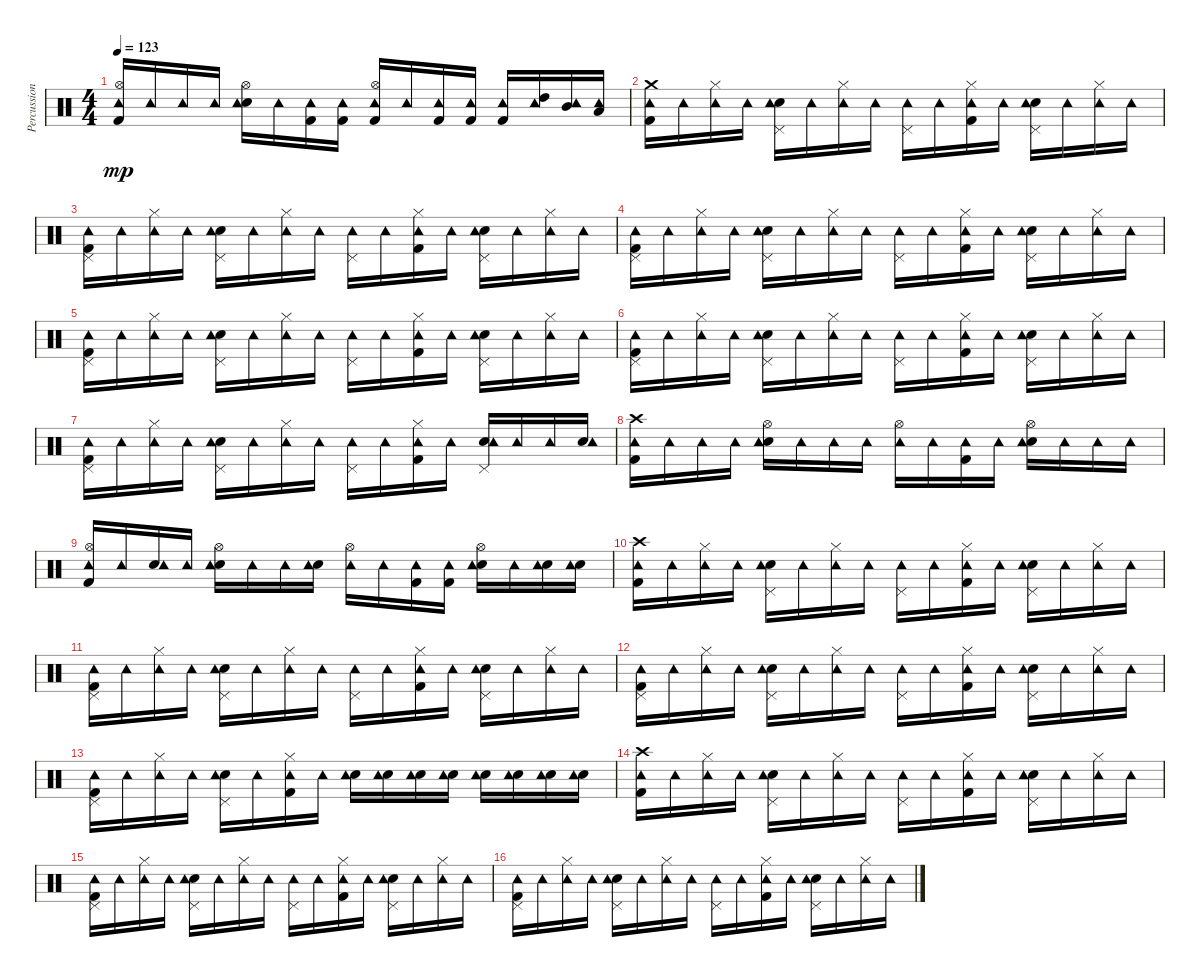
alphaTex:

\track ("Percussions" "Percussion") {instrument percussion}
\staff {score}
\articulation defaults
\ts (4 4)
\tempo 123
\clef neutral
\ks c
("Kick (hit) 2" "Hi-Hat (open)" "Tambourine (hit)").16{dy mp} "Tambourine (hit)".16 "Tambourine (hit)".16 "Tambourine (hit)".16 ("Snare (hit) 2" "Hi-Hat (open)" "Tambourine (hit)").16 "Tambourine (hit)".16 ("Kick (hit) 2" "Tambourine (hit)").16 ("Kick (hit) 2" "Tambourine (hit)").16 ("Kick (hit) 2" "Hi-Hat (open)" "Tambourine (hit)").16 "Tambourine (hit)".16 ("Kick (hit) 2" "Tambourine (hit)").16 ("Kick (hit) 2" "Tambourine (hit)").16 ("Kick (hit) 2" "Tambourine (hit)").16 ("High Tom (hit)" "Tambourine (hit)").16 ("Mid Tom (hit)" "Tambourine (hit)").16 ("Low Tom (hit)" "Tambourine (hit)").16 |
("Kick (hit) 2" "Tambourine (hit)" "Crash medium (hit)").16 "Tambourine (hit)".16 ("Hi-Hat (closed)" "Tambourine (hit)").16 "Tambourine (hit)".16 ("Snare (hit) 2" "Pedal Hi-Hat (hit)" "Tambourine (hit)").16 "Tambourine (hit)".16 ("Hi-Hat (closed)" "Tambourine (hit)").16 "Tambourine (hit)".16 ("Pedal Hi-Hat (hit)" "Tambourine (hit)").16 "Tambourine (hit)".16 ("Kick (hit) 2" "Hi-Hat (closed)" "Tambourine (hit)").16 "Tambourine (hit)".16 ("Snare (hit) 2" "Pedal Hi-Hat (hit)" "Tambourine (hit)").16 "Tambourine (hit)".16 ("Hi-Hat (closed)" "Tambourine (hit)").16 "Tambourine (hit)".16 |
("Kick (hit) 2" "Pedal Hi-Hat (hit)" "Tambourine (hit)").16 "Tambourine (hit)".16 ("Hi-Hat (closed)" "Tambourine (hit)").16 "Tambourine (hit)".16 ("Snare (hit) 2" "Pedal Hi-Hat (hit)" "Tambourine (hit)").16 "Tambourine (hit)".16 ("Hi-Hat (closed)" "Tambourine (hit)").16 "Tambourine (hit)".16 ("Pedal Hi-Hat (hit)" "Tambourine (hit)").16 "Tambourine (hit)".16 ("Kick (hit) 2" "Hi-Hat (closed)" "Tambourine (hit)").16 "Tambourine (hit)".16 ("Snare (hit) 2" "Pedal Hi-Hat (hit)" "Tambourine (hit)").16 "Tambourine (hit)".16 ("Hi-Hat (closed)" "Tambourine (hit)").16 "Tambourine (hit)".16 |
("Kick (hit) 2" "Pedal Hi-Hat (hit)" "Tambourine (hit)").16 "Tambourine (hit)".16 ("Hi-Hat (closed)" "Tambourine (hit)").16 "Tambourine (hit)".16 ("Snare (hit) 2" "Pedal Hi-Hat (hit)" "Tambourine (hit)").16 "Tambourine (hit)".16 ("Hi-Hat (closed)" "Tambourine (hit)").16 "Tambourine (hit)".16 ("Pedal Hi-Hat (hit)" "Tambourine (hit)").16 "Tambourine (hit)".16 ("Kick (hit) 2" "Hi-Hat (closed)" "Tambourine (hit)").16 "Tambourine (hit)".16 ("Snare (hit) 2" "Pedal Hi-Hat (hit)" "Tambourine (hit)").16 "Tambourine (hit)".16 ("Hi-Hat (closed)" "Tambourine (hit)").16 "Tambourine (hit)".16 |
("Kick (hit) 2" "Pedal Hi-Hat (hit)" "Tambourine (hit)").16 "Tambourine (hit)".16 ("Hi-Hat (closed)" "Tambourine (hit)").16 "Tambourine (hit)".16 ("Snare (hit) 2" "Pedal Hi-Hat (hit)" "Tambourine (hit)").16 "Tambourine (hit)".16 ("Hi-Hat (closed)" "Tambourine (hit)").16 "Tambourine (hit)".16 ("Pedal Hi-Hat (hit)" "Tambourine (hit)").16 "Tambourine (hit)".16 ("Kick (hit) 2" "Hi-Hat (closed)" "Tambourine (hit)").16 "Tambourine (hit)".16 ("Snare (hit) 2" "Pedal Hi-Hat (hit)" "Tambourine (hit)").16 "Tambourine (hit)".16 ("Hi-Hat (closed)" "Tambourine (hit)").16 "Tambourine (hit)".16 |
("Kick (hit) 2" "Pedal Hi-Hat (hit)" "Tambourine (hit)").16 "Tambourine (hit)".16 ("Hi-Hat (closed)" "Tambourine (hit)").16 "Tambourine (hit)".16 ("Snare (hit) 2" "Pedal Hi-Hat (hit)" "Tambourine (hit)").16 "Tambourine (hit)".16 ("Hi-Hat (closed)" "Tambourine (hit)").16 "Tambourine (hit)".16 ("Pedal Hi-Hat (hit)" "Tambourine (hit)").16 "Tambourine (hit)".16 ("Kick (hit) 2" "Hi-Hat (closed)" "Tambourine (hit)").16 "Tambourine (hit)".16 ("Snare (hit) 2" "Pedal Hi-Hat (hit)" "Tambourine (hit)").16 "Tambourine (hit)".16 ("Hi-Hat (closed)" "Tambourine (hit)").16 "Tambourine (hit)".16 |
("Kick (hit) 2" "Pedal Hi-Hat (hit)" "Tambourine (hit)").16 "Tambourine (hit)".16 ("Hi-Hat (closed)" "Tambourine (hit)").16 "Tambourine (hit)".16 ("Snare (hit) 2" "Pedal Hi-Hat (hit)" "Tambourine (hit)").16 "Tambourine (hit)".16 ("Hi-Hat (closed)" "Tambourine (hit)").16 "Tambourine (hit)".16 ("Pedal Hi-Hat (hit)" "Tambourine (hit)").16 "Tambourine (hit)".16 ("Kick (hit) 2" "Hi-Hat (closed)" "Tambourine (hit)").16 "Tambourine (hit)".16 ("Snare (hit) 2" "Pedal Hi-Hat (hit)" "Tambourine (hit)").16 "Tambourine (hit)".16 "Tambourine (hit)".16 ("Snare (hit) 2" "Tambourine (hit)").16 |
("Kick (hit) 2" "Crash high (hit)" "Tambourine (hit)").16 "Tambourine (hit)".16 "Tambourine (hit)".16 "Tambourine (hit)".16 ("Snare (hit) 2" "Hi-Hat (open)" "Tambourine (hit)").16 "Tambourine (hit)".16 "Tambourine (hit)".16 "Tambourine (hit)".16 ("Hi-Hat (open)" "Tambourine (hit)").16 "Tambourine (hit)".16 ("Kick (hit) 2" "Tambourine (hit)").16 "Tambourine (hit)".16 ("Snare (hit) 2" "Hi-Hat (open)" "Tambourine (hit)").16 "Tambourine (hit)".16 "Tambourine (hit)".16 "Tambourine (hit)".16 |
("Kick (hit) 2" "Hi-Hat (open)" "Tambourine (hit)").16 "Tambourine (hit)".16 ("Snare (hit) 2" "Tambourine (hit)").16 "Tambourine (hit)".16 ("Snare (hit) 2" "Hi-Hat (open)" "Tambourine (hit)").16 "Tambourine (hit)".16 "Tambourine (hit)".16 ("Snare (hit) 2" "Tambourine (hit)").16 ("Hi-Hat (open)" "Tambourine (hit)").16 "Tambourine (hit)".16 ("Kick (hit) 2" "Tambourine (hit)").16 ("Kick (hit) 2" "Tambourine (hit)").16 ("Snare (hit) 2" "Hi-Hat (open)" "Tambourine (hit)").16 "Tambourine (hit)".16 ("Snare (hit) 2" "Tambourine (hit)").16 ("Snare (hit) 2" "Tambourine (hit)").16 |
("Kick (hit) 2" "Crash high (hit)" "Tambourine (hit)").16 "Tambourine (hit)".16 ("Hi-Hat (closed)" "Tambourine (hit)").16 "Tambourine (hit)".16 ("Snare (hit) 2" "Pedal Hi-Hat (hit)" "Tambourine (hit)").16 "Tambourine (hit)".16 ("Hi-Hat (closed)" "Tambourine (hit)").16 "Tambourine (hit)".16 ("Pedal Hi-Hat (hit)" "Tambourine (hit)").16 "Tambourine (hit)".16 ("Kick (hit) 2" "Hi-Hat (closed)" "Tambourine (hit)").16 "Tambourine (hit)".16 ("Snare (hit) 2" "Pedal Hi-Hat (hit)" "Tambourine (hit)").16 "Tambourine (hit)".16 ("Hi-Hat (closed)" "Tambourine (hit)").16 "Tambourine (hit)".16 |
("Kick (hit) 2" "Pedal Hi-Hat (hit)" "Tambourine (hit)").16 "Tambourine (hit)".16 ("Hi-Hat (closed)" "Tambourine (hit)").16 "Tambourine (hit)".16 ("Snare (hit) 2" "Pedal Hi-Hat (hit)" "Tambourine (hit)").16 "Tambourine (hit)".16 ("Hi-Hat (closed)" "Tambourine (hit)").16 "Tambourine (hit)".16 ("Pedal Hi-Hat (hit)" "Tambourine (hit)").16 "Tambourine (hit)".16 ("Kick (hit) 2" "Hi-Hat (closed)" "Tambourine (hit)").16 "Tambourine (hit)".16 ("Snare (hit) 2" "Pedal Hi-Hat (hit)" "Tambourine (hit)").16 "Tambourine (hit)".16 ("Hi-Hat (closed)" "Tambourine (hit)").16 "Tambourine (hit)".16 |
("Kick (hit) 2" "Pedal Hi-Hat (hit)" "Tambourine (hit)").16 "Tambourine (hit)".16 ("Hi-Hat (closed)" "Tambourine (hit)").16 "Tambourine (hit)".16 ("Snare (hit) 2" "Pedal Hi-Hat (hit)" "Tambourine (hit)").16 "Tambourine (hit)".16 ("Hi-Hat (closed)" "Tambourine (hit)").16 "Tambourine (hit)".16 ("Pedal Hi-Hat (hit)" "Tambourine (hit)").16 "Tambourine (hit)".16 ("Kick (hit) 2" "Hi-Hat (closed)" "Tambourine (hit)").16 "Tambourine (hit)".16 ("Snare (hit) 2" "Pedal Hi-Hat (hit)" "Tambourine (hit)").16 "Tambourine (hit)".16 ("Hi-Hat (closed)" "Tambourine (hit)").16 "Tambourine (hit)".16 |
("Kick (hit) 2" "Pedal Hi-Hat (hit)" "Tambourine (hit)").16 "Tambourine (hit)".16 ("Hi-Hat (closed)" "Tambourine (hit)").16 "Tambourine (hit)".16 ("Snare (hit) 2" "Pedal Hi-Hat (hit)" "Tambourine (hit)").16 "Tambourine (hit)".16 ("Kick (hit) 2" "Hi-Hat (closed)" "Tambourine (hit)").16 "Tambourine (hit)".16 ("Snare (hit) 2" "Tambourine (hit)").16 ("Snare (hit) 2" "Tambourine (hit)").16 ("Snare (hit) 2" "Tambourine (hit)").16 ("Snare (hit) 2" "Tambourine (hit)").16 ("Snare (hit) 2" "Tambourine (hit)").16 ("Snare (hit) 2" "Tambourine (hit)").16 ("Snare (hit) 2" "Tambourine (hit)").16 ("Snare (hit) 2" "Tambourine (hit)").16 |
("Kick (hit) 2" "Crash high (hit)" "Tambourine (hit)").16 "Tambourine (hit)".16 ("Hi-Hat (closed)" "Tambourine (hit)").16 "Tambourine (hit)".16 ("Snare (hit) 2" "Pedal Hi-Hat (hit)" "Tambourine (hit)").16 "Tambourine (hit)".16 ("Hi-Hat (closed)" "Tambourine (hit)").16 "Tambourine (hit)".16 ("Pedal Hi-Hat (hit)" "Tambourine (hit)").16 "Tambourine (hit)".16 ("Kick (hit) 2" "Hi-Hat (closed)" "Tambourine (hit)").16 "Tambourine (hit)".16 ("Snare (hit) 2" "Pedal Hi-Hat (hit)" "Tambourine (hit)").16 "Tambourine (hit)".16 ("Hi-Hat (closed)" "Tambourine (hit)").16 "Tambourine (hit)".16 |
("Kick (hit) 2" "Pedal Hi-Hat (hit)" "Tambourine (hit)").16 "Tambourine (hit)".16 ("Hi-Hat (closed)" "Tambourine (hit)").16 "Tambourine (hit)".16 ("Snare (hit) 2" "Pedal Hi-Hat (hit)" "Tambourine (hit)").16 "Tambourine (hit)".16 ("Hi-Hat (closed)" "Tambourine (hit)").16 "Tambourine (hit)".16 ("Pedal Hi-Hat (hit)" "Tambourine (hit)").16 "Tambourine (hit)".16 ("Kick (hit) 2" "Hi-Hat (closed)" "Tambourine (hit)").16 "Tambourine (hit)".16 ("Snare (hit) 2" "Pedal Hi-Hat (hit)" "Tambourine (hit)").16 "Tambourine (hit)".16 ("Hi-Hat (closed)" "Tambourine (hit)").16 "Tambourine (hit)".16 |
("Kick (hit) 2" "Pedal Hi-Hat (hit)" "Tambourine (hit)").16 "Tambourine (hit)".16 ("Hi-Hat (closed)" "Tambourine (hit)").16 "Tambourine (hit)".16 ("Snare (hit) 2" "Pedal Hi-Hat (hit)" "Tambourine (hit)").16 "Tambourine (hit)".16 ("Hi-Hat (closed)" "Tambourine (hit)").16 "Tambourine (hit)".16 ("Pedal Hi-Hat (hit)" "Tambourine (hit)").16 "Tambourine (hit)".16 ("Kick (hit) 2" "Hi-Hat (closed)" "Tambourine (hit)").16 "Tambourine (hit)".16 ("Snare (hit) 2" "Pedal Hi-Hat (hit)" "Tambourine (hit)").16 "Tambourine (hit)".16 ("Hi-Hat (closed)" "Tambourine (hit)").16 "Tambourine (hit)".16
